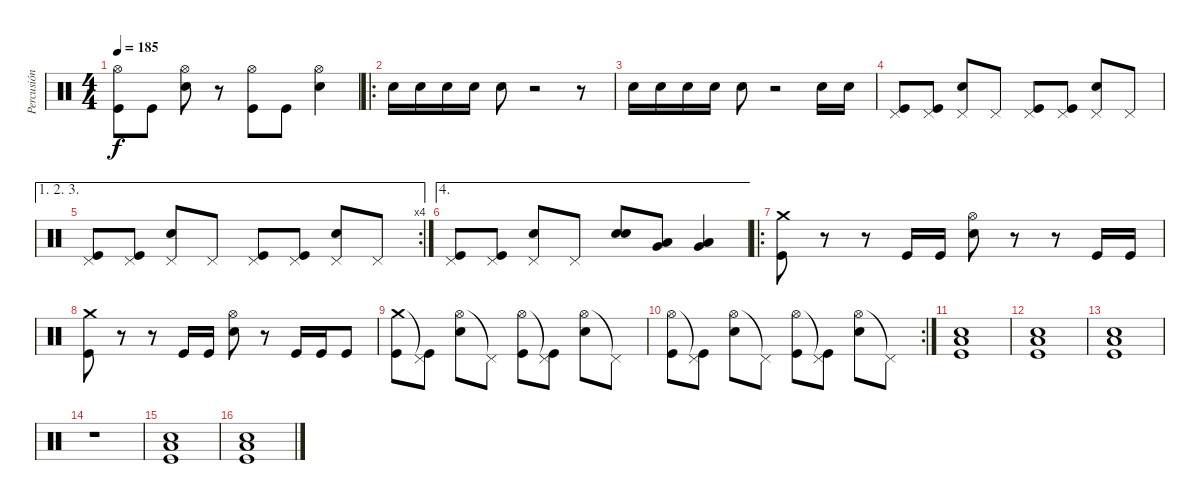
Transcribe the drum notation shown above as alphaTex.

\track ("Percusión" "Percusión") {instrument percussion}
\staff {score}
\articulation defaults
\ts (4 4)
\tempo 185
\clef neutral
\ks c
("Hi-Hat (open)" "Kick (hit)").8{dy f} "Kick (hit)".8 ("Hi-Hat (open)" "Electric Snare (hit)").8 r.8 ("Hi-Hat (open)" "Kick (hit)").8 "Kick (hit)".8 ("Hi-Hat (open)" "Electric Snare (hit)").4 |
\ro "Electric Snare (hit)".16 "Electric Snare (hit)".16 "Electric Snare (hit)".16 "Electric Snare (hit)".16 "Electric Snare (hit)".8
r.2 r.8 |
"Electric Snare (hit)".16 "Electric Snare (hit)".16 "Electric Snare (hit)".16 "Electric Snare (hit)".16 "Electric Snare (hit)".8 r.2 "Electric Snare (hit)".16 "Electric Snare (hit)".16 |
("Pedal Hi-Hat (hit)" "Kick (hit)").8 ("Pedal Hi-Hat (hit)" "Kick (hit)").8 ("Pedal Hi-Hat (hit)" "Electric Snare (hit)").8 "Pedal Hi-Hat (hit)".8 ("Pedal Hi-Hat (hit)" "Kick (hit)").8 ("Pedal Hi-Hat (hit)" "Kick (hit)").8 ("Pedal Hi-Hat (hit)" "Electric Snare (hit)").8 "Pedal Hi-Hat (hit)".8 |
\ae (1 2 3)
\rc 4
("Pedal Hi-Hat (hit)" "Kick (hit)").8 ("Pedal Hi-Hat (hit)" "Kick (hit)").8 ("Pedal Hi-Hat (hit)" "Electric Snare (hit)").8 "Pedal Hi-Hat (hit)".8 ("Pedal Hi-Hat (hit)" "Kick (hit)").8 ("Pedal Hi-Hat (hit)" "Kick (hit)").8 ("Pedal Hi-Hat (hit)" "Electric Snare (hit)").8 "Pedal Hi-Hat (hit)".8 |
\ae 4
("Pedal Hi-Hat (hit)" "Kick (hit)").8 ("Pedal Hi-Hat (hit)" "Kick (hit)").8 ("Pedal Hi-Hat (hit)" "Electric Snare (hit)").8 "Pedal Hi-Hat (hit)".8 ("Electric Snare (hit)" "Electric Snare (hit)").8 ("Very Low Tom (hit)" "Low Tom (hit)").8 ("Low Floor Tom (hit)" "Very Low Tom (hit)").4 |
\ro
("Crash medium (hit)" "Kick (hit)").8 r.8 r.8 "Kick (hit)".16 "Kick (hit)".16 ("Hi-Hat (open)" "Electric Snare (hit)").8 r.8 r.8 "Kick (hit)".16 "Kick (hit)".16 |
("Crash medium (hit)" "Kick (hit)").8 r.8 r.8 "Kick (hit)".16 "Kick (hit)".16 ("Hi-Hat (open)" "Electric Snare (hit)").8 r.8 "Kick (hit)".16 "Kick (hit)".16 "Kick (hit)".8 |
("Crash medium (hit)" "Kick (hit)").8 ("Pedal Hi-Hat (hit)"{t} "Kick (hit)").8 ("Hi-Hat (open)" "Electric Snare (hit)").8 "Pedal Hi-Hat (hit)"{t}.8 ("Hi-Hat (open)" "Kick (hit)").8 ("Pedal Hi-Hat (hit)"{t} "Kick (hit)").8 ("Hi-Hat (open)" "Electric Snare (hit)").8 "Pedal Hi-Hat (hit)"{t}.8 |
\rc 2
("Hi-Hat (open)" "Kick (hit)").8 ("Pedal Hi-Hat (hit)"{t} "Kick (hit)").8 ("Hi-Hat (open)" "Electric Snare (hit)").8 "Pedal Hi-Hat (hit)"{t}.8 ("Hi-Hat (open)" "Kick (hit)").8 ("Pedal Hi-Hat (hit)"{t} "Kick (hit)").8 ("Hi-Hat (open)" "Electric Snare (hit)").8 "Pedal Hi-Hat (hit)"{t}.8 |
("Electric Snare (hit)" "Low Floor Tom (hit)" "Kick (hit)").1 |
("Electric Snare (hit)" "Low Floor Tom (hit)" "Kick (hit)").1 |
("Electric Snare (hit)" "Low Floor Tom (hit)" "Kick (hit)").1 |
r.1 |
("Electric Snare (hit)" "Low Floor Tom (hit)" "Kick (hit)").1 |
("Electric Snare (hit)" "Low Floor Tom (hit)" "Kick (hit)").1
